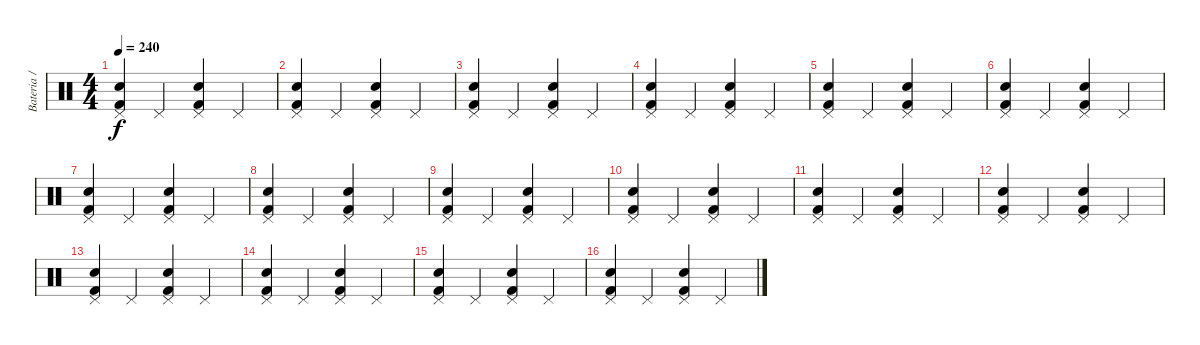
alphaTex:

\track ("Bateria / Percusión" "Bateria / ") {instrument percussion}
\staff {score}
\articulation defaults
\ts (4 4)
\tempo 240
\clef neutral
\ks c
("Kick (hit) 2" "Pedal Hi-Hat (hit)" "Snare (hit) 2").4{dy f} "Pedal Hi-Hat (hit)".4 ("Kick (hit) 2" "Pedal Hi-Hat (hit)" "Snare (hit) 2").4 "Pedal Hi-Hat (hit)".4 |
("Kick (hit) 2" "Pedal Hi-Hat (hit)" "Snare (hit) 2").4 "Pedal Hi-Hat (hit)".4 ("Kick (hit) 2" "Pedal Hi-Hat (hit)" "Snare (hit) 2").4 "Pedal Hi-Hat (hit)".4 |
("Kick (hit) 2" "Pedal Hi-Hat (hit)" "Snare (hit) 2").4 "Pedal Hi-Hat (hit)".4 ("Kick (hit) 2" "Pedal Hi-Hat (hit)" "Snare (hit) 2").4 "Pedal Hi-Hat (hit)".4 |
("Kick (hit) 2" "Pedal Hi-Hat (hit)" "Snare (hit) 2").4 "Pedal Hi-Hat (hit)".4 ("Kick (hit) 2" "Pedal Hi-Hat (hit)" "Snare (hit) 2").4 "Pedal Hi-Hat (hit)".4 |
("Kick (hit) 2" "Pedal Hi-Hat (hit)" "Snare (hit) 2").4 "Pedal Hi-Hat (hit)".4 ("Kick (hit) 2" "Pedal Hi-Hat (hit)" "Snare (hit) 2").4 "Pedal Hi-Hat (hit)".4 |
("Kick (hit) 2" "Pedal Hi-Hat (hit)" "Snare (hit) 2").4 "Pedal Hi-Hat (hit)".4 ("Kick (hit) 2" "Pedal Hi-Hat (hit)" "Snare (hit) 2").4 "Pedal Hi-Hat (hit)".4 |
("Kick (hit) 2" "Pedal Hi-Hat (hit)" "Snare (hit) 2").4 "Pedal Hi-Hat (hit)".4 ("Kick (hit) 2" "Pedal Hi-Hat (hit)" "Snare (hit) 2").4 "Pedal Hi-Hat (hit)".4 |
("Kick (hit) 2" "Pedal Hi-Hat (hit)" "Snare (hit) 2").4 "Pedal Hi-Hat (hit)".4 ("Kick (hit) 2" "Pedal Hi-Hat (hit)" "Snare (hit) 2").4 "Pedal Hi-Hat (hit)".4 |
("Kick (hit) 2" "Pedal Hi-Hat (hit)" "Snare (hit) 2").4 "Pedal Hi-Hat (hit)".4 ("Kick (hit) 2" "Pedal Hi-Hat (hit)" "Snare (hit) 2").4 "Pedal Hi-Hat (hit)".4 |
("Kick (hit) 2" "Pedal Hi-Hat (hit)" "Snare (hit) 2").4 "Pedal Hi-Hat (hit)".4 ("Kick (hit) 2" "Pedal Hi-Hat (hit)" "Snare (hit) 2").4 "Pedal Hi-Hat (hit)".4 |
("Kick (hit) 2" "Pedal Hi-Hat (hit)" "Snare (hit) 2").4 "Pedal Hi-Hat (hit)".4 ("Kick (hit) 2" "Pedal Hi-Hat (hit)" "Snare (hit) 2").4 "Pedal Hi-Hat (hit)".4 |
("Kick (hit) 2" "Pedal Hi-Hat (hit)" "Snare (hit) 2").4 "Pedal Hi-Hat (hit)".4 ("Kick (hit) 2" "Pedal Hi-Hat (hit)" "Snare (hit) 2").4 "Pedal Hi-Hat (hit)".4 |
("Kick (hit) 2" "Pedal Hi-Hat (hit)" "Snare (hit) 2").4 "Pedal Hi-Hat (hit)".4 ("Kick (hit) 2" "Pedal Hi-Hat (hit)" "Snare (hit) 2").4 "Pedal Hi-Hat (hit)".4 |
("Kick (hit) 2" "Pedal Hi-Hat (hit)" "Snare (hit) 2").4 "Pedal Hi-Hat (hit)".4 ("Kick (hit) 2" "Pedal Hi-Hat (hit)" "Snare (hit) 2").4 "Pedal Hi-Hat (hit)".4 |
("Kick (hit) 2" "Pedal Hi-Hat (hit)" "Snare (hit) 2").4 "Pedal Hi-Hat (hit)".4 ("Kick (hit) 2" "Pedal Hi-Hat (hit)" "Snare (hit) 2").4 "Pedal Hi-Hat (hit)".4 |
("Kick (hit) 2" "Pedal Hi-Hat (hit)" "Snare (hit) 2").4 "Pedal Hi-Hat (hit)".4 ("Kick (hit) 2" "Pedal Hi-Hat (hit)" "Snare (hit) 2").4 "Pedal Hi-Hat (hit)".4
